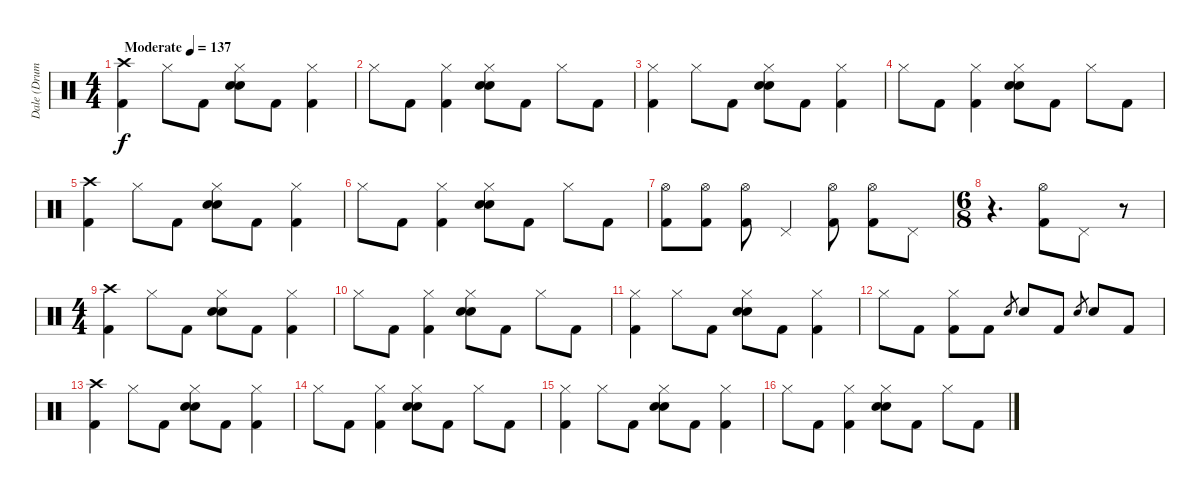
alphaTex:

\track ("Dale (Drums 1)" "Dale (Drum") {instrument percussion}
\staff {score}
\articulation defaults
\ts (4 4)
\tempo (137 "Moderate")
\clef neutral
\ks c
("Crash high (hit)" "Kick (hit) 2").4{dy f} "Hi-Hat (closed)".8 "Kick (hit) 2".8 ("Hi-Hat (closed)" "Snare (hit) 2" "Electric Snare (hit)").8 "Kick (hit) 2".8 ("Kick (hit) 2" "Hi-Hat (closed)").4 |
"Hi-Hat (closed)".8 "Kick (hit) 2".8 ("Hi-Hat (closed)" "Kick (hit) 2").4 ("Hi-Hat (closed)" "Snare (hit) 2" "Electric Snare (hit)").8 "Kick (hit) 2".8 "Hi-Hat (closed)".8 "Kick (hit) 2".8 |
("Hi-Hat (closed)" "Kick (hit) 2").4 "Hi-Hat (closed)".8 "Kick (hit) 2".8 ("Hi-Hat (closed)" "Snare (hit) 2" "Electric Snare (hit)").8 "Kick (hit) 2".8 ("Kick (hit) 2" "Hi-Hat (closed)").4 |
"Hi-Hat (closed)".8 "Kick (hit) 2".8 ("Hi-Hat (closed)" "Kick (hit) 2").4 ("Hi-Hat (closed)" "Snare (hit) 2" "Electric Snare (hit)").8 "Kick (hit) 2".8 "Hi-Hat (closed)".8 "Kick (hit) 2".8 |
("Crash high (hit)" "Kick (hit) 2").4 "Hi-Hat (closed)".8 "Kick (hit) 2".8 ("Hi-Hat (closed)" "Snare (hit) 2" "Electric Snare (hit)").8 "Kick (hit) 2".8 ("Kick (hit) 2" "Hi-Hat (closed)").4 |
"Hi-Hat (closed)".8 "Kick (hit) 2".8 ("Hi-Hat (closed)" "Kick (hit) 2").4 ("Hi-Hat (closed)" "Snare (hit) 2" "Electric Snare (hit)").8 "Kick (hit) 2".8 "Hi-Hat (closed)".8 "Kick (hit) 2".8 |
("Kick (hit) 2" "Hi-Hat (open)").8 ("Kick (hit) 2" "Hi-Hat (open)").8 ("Kick (hit) 2" "Hi-Hat (open)").8 "Pedal Hi-Hat (hit)".4 ("Kick (hit) 2" "Hi-Hat (open)").8 ("Kick (hit) 2" "Hi-Hat (open)").8 "Pedal Hi-Hat (hit)".8 |
\ts (6 8)
r.4{d} ("Kick (hit) 2" "Hi-Hat (open)").8 "Pedal Hi-Hat (hit)".8 r.8 |
\ts (4 4)
("Crash high (hit)" "Kick (hit) 2").4 "Hi-Hat (closed)".8 "Kick (hit) 2".8 ("Hi-Hat (closed)" "Snare (hit) 2" "Electric Snare (hit)").8 "Kick (hit) 2".8 ("Kick (hit) 2" "Hi-Hat (closed)").4 |
"Hi-Hat (closed)".8 "Kick (hit) 2".8 ("Hi-Hat (closed)" "Kick (hit) 2").4 ("Hi-Hat (closed)" "Snare (hit) 2" "Electric Snare (hit)").8 "Kick (hit) 2".8 "Hi-Hat (closed)".8 "Kick (hit) 2".8 |
("Hi-Hat (closed)" "Kick (hit) 2").4 "Hi-Hat (closed)".8 "Kick (hit) 2".8 ("Hi-Hat (closed)" "Snare (hit) 2" "Electric Snare (hit)").8 "Kick (hit) 2".8 ("Kick (hit) 2" "Hi-Hat (closed)").4 |
"Hi-Hat (closed)".8 "Kick (hit) 2".8 ("Hi-Hat (closed)" "Kick (hit) 2").8 "Kick (hit) 2".8 "Snare (hit) 2".8{gr} "Snare (hit) 2".8 "Kick (hit) 2".8 "Snare (hit) 2".8{gr} "Snare (hit) 2".8 "Kick (hit) 2".8 |
("Crash high (hit)" "Kick (hit) 2").4 "Hi-Hat (closed)".8 "Kick (hit) 2".8 ("Hi-Hat (closed)" "Snare (hit) 2" "Electric Snare (hit)").8 "Kick (hit) 2".8 ("Kick (hit) 2" "Hi-Hat (closed)").4 |
"Hi-Hat (closed)".8 "Kick (hit) 2".8 ("Hi-Hat (closed)" "Kick (hit) 2").4 ("Hi-Hat (closed)" "Snare (hit) 2" "Electric Snare (hit)").8 "Kick (hit) 2".8 "Hi-Hat (closed)".8 "Kick (hit) 2".8 |
("Hi-Hat (closed)" "Kick (hit) 2").4 "Hi-Hat (closed)".8 "Kick (hit) 2".8 ("Hi-Hat (closed)" "Snare (hit) 2" "Electric Snare (hit)").8 "Kick (hit) 2".8 ("Kick (hit) 2" "Hi-Hat (closed)").4 |
"Hi-Hat (closed)".8 "Kick (hit) 2".8 ("Hi-Hat (closed)" "Kick (hit) 2").4 ("Hi-Hat (closed)" "Snare (hit) 2" "Electric Snare (hit)").8 "Kick (hit) 2".8 "Hi-Hat (closed)".8 "Kick (hit) 2".8
